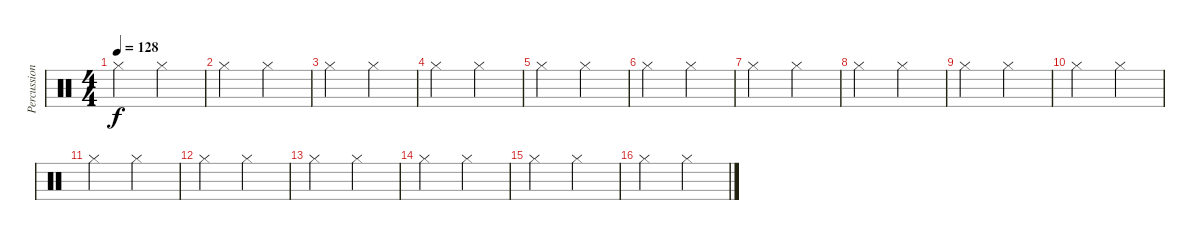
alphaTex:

\track ("Percussions" "Percussion") {instrument percussion}
\staff {score}
\articulation defaults
\ts (4 4)
\tempo 128
\clef neutral
\ks c "Hi-Hat (closed)".2{dy f} "Hi-Hat (closed)".2
|
"Hi-Hat (closed)".2 "Hi-Hat (closed)".2 |
"Hi-Hat (closed)".2 "Hi-Hat (closed)".2 |
"Hi-Hat (closed)".2 "Hi-Hat (closed)".2 |
"Hi-Hat (closed)".2 "Hi-Hat (closed)".2 |
"Hi-Hat (closed)".2 "Hi-Hat (closed)".2 |
"Hi-Hat (closed)".2 "Hi-Hat (closed)".2 |
"Hi-Hat (closed)".2 "Hi-Hat (closed)".2 |
"Hi-Hat (closed)".2 "Hi-Hat (closed)".2 |
"Hi-Hat (closed)".2 "Hi-Hat (closed)".2 |
"Hi-Hat (closed)".2 "Hi-Hat (closed)".2 |
"Hi-Hat (closed)".2 "Hi-Hat (closed)".2 |
"Hi-Hat (closed)".2 "Hi-Hat (closed)".2 |
"Hi-Hat (closed)".2 "Hi-Hat (closed)".2 |
"Hi-Hat (closed)".2 "Hi-Hat (closed)".2 |
"Hi-Hat (closed)".2 "Hi-Hat (closed)".2
